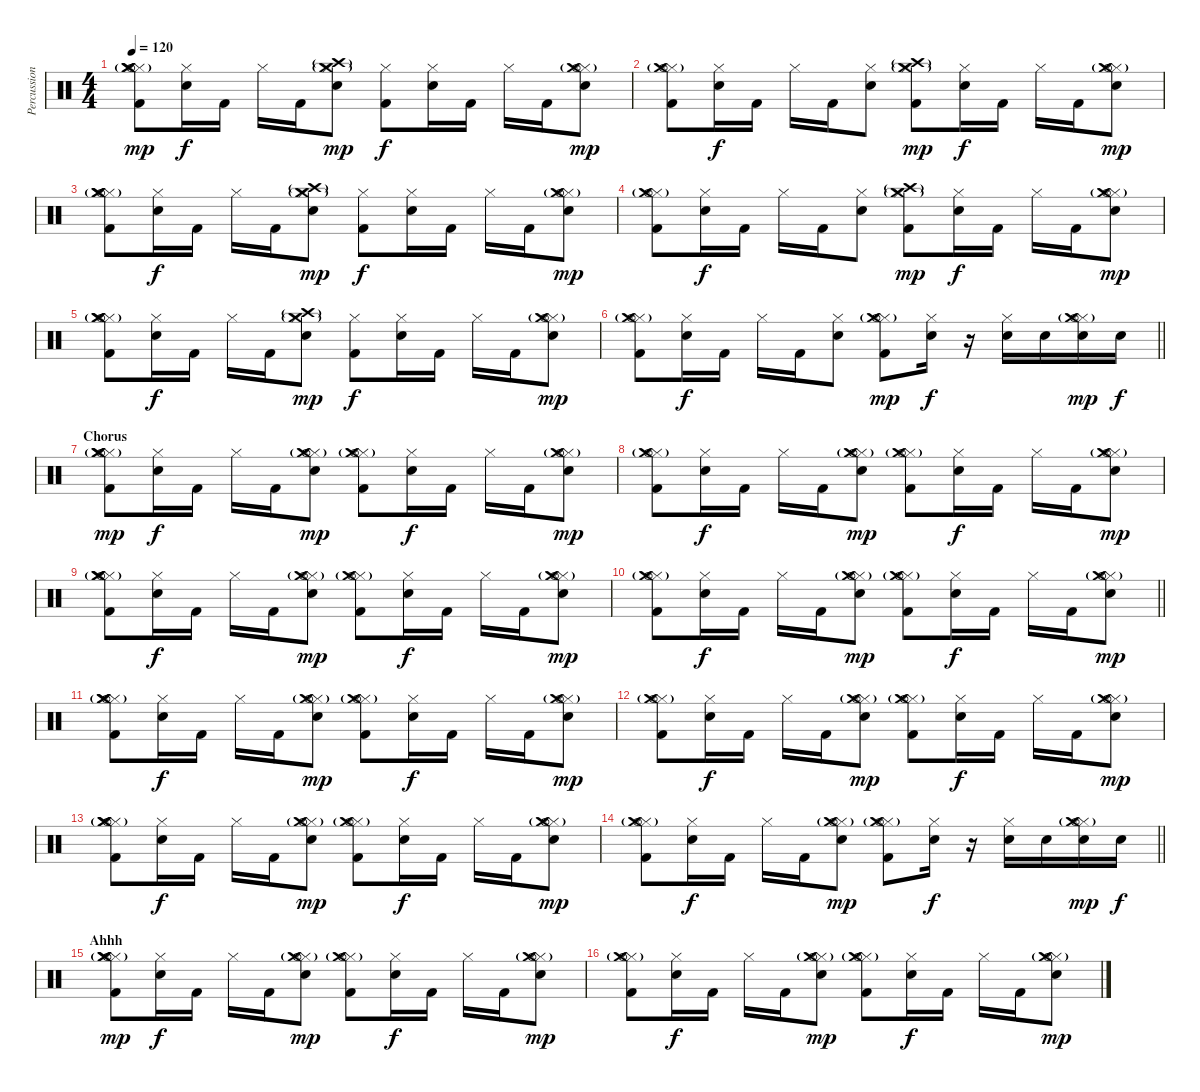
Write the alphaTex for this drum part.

\track ("Percussion" "Percussion") {instrument percussion}
\staff {score}
\articulation defaults
\ts (4 4)
\tempo 120
\clef neutral
\ks c
("Hi-Hat (closed)" "Hi-Hat (open)"{g} "Crash medium (hit)"{g} "Kick (hit) 2" "Crash medium (hit)").8{dy mp} ("Hi-Hat (closed)" "Snare (hit) 2").16{dy f} "Kick (hit) 2".16 "Hi-Hat (closed)".16 "Kick (hit) 2".16 ("Hi-Hat (closed)" "Crash high (hit)"{g} "Crash medium (hit)"{g} "Snare (hit) 2").8{dy mp} ("Hi-Hat (closed)" "Kick (hit) 2").8{dy f} ("Hi-Hat (closed)" "Snare (hit) 2").16 "Kick (hit) 2".16 "Hi-Hat (closed)".16 "Kick (hit) 2".16 ("Hi-Hat (closed)" "Hi-Hat (open)"{g} "Crash medium (hit)"{g} "Snare (hit) 2").8{dy mp} |
("Hi-Hat (closed)" "Hi-Hat (open)"{g} "Crash medium (hit)"{g} "Kick (hit) 2").8 ("Hi-Hat (closed)" "Snare (hit) 2").16{dy f} "Kick (hit) 2".16 "Hi-Hat (closed)".16 "Kick (hit) 2".16 ("Hi-Hat (closed)" "Snare (hit) 2").8 ("Hi-Hat (closed)" "Crash high (hit)"{g} "Crash medium (hit)"{g} "Kick (hit) 2").8{dy mp} ("Hi-Hat (closed)" "Snare (hit) 2").16{dy f} "Kick (hit) 2".16 "Hi-Hat (closed)".16 "Kick (hit) 2".16 ("Hi-Hat (closed)" "Hi-Hat (open)"{g} "Crash medium (hit)"{g} "Snare (hit) 2").8{dy mp} |
("Hi-Hat (closed)" "Hi-Hat (open)"{g} "Crash medium (hit)"{g} "Kick (hit) 2" "Crash medium (hit)").8 ("Hi-Hat (closed)" "Snare (hit) 2").16{dy f} "Kick (hit) 2".16 "Hi-Hat (closed)".16 "Kick (hit) 2".16 ("Hi-Hat (closed)" "Crash high (hit)"{g} "Crash medium (hit)"{g} "Snare (hit) 2").8{dy mp} ("Hi-Hat (closed)" "Kick (hit) 2").8{dy f} ("Hi-Hat (closed)" "Snare (hit) 2").16 "Kick (hit) 2".16 "Hi-Hat (closed)".16 "Kick (hit) 2".16 ("Hi-Hat (closed)" "Hi-Hat (open)"{g} "Crash medium (hit)"{g} "Snare (hit) 2").8{dy mp} |
("Hi-Hat (closed)" "Hi-Hat (open)"{g} "Crash medium (hit)"{g} "Kick (hit) 2").8 ("Hi-Hat (closed)" "Snare (hit) 2").16{dy f} "Kick (hit) 2".16 "Hi-Hat (closed)".16 "Kick (hit) 2".16 ("Hi-Hat (closed)" "Snare (hit) 2").8 ("Hi-Hat (closed)" "Crash high (hit)"{g} "Crash medium (hit)"{g} "Kick (hit) 2").8{dy mp} ("Hi-Hat (closed)" "Snare (hit) 2").16{dy f} "Kick (hit) 2".16 "Hi-Hat (closed)".16 "Kick (hit) 2".16 ("Hi-Hat (closed)" "Hi-Hat (open)"{g} "Crash medium (hit)"{g} "Snare (hit) 2").8{dy mp} |
("Hi-Hat (closed)" "Hi-Hat (open)"{g} "Crash medium (hit)"{g} "Kick (hit) 2" "Crash medium (hit)").8 ("Hi-Hat (closed)" "Snare (hit) 2").16{dy f} "Kick (hit) 2".16 "Hi-Hat (closed)".16 "Kick (hit) 2".16 ("Hi-Hat (closed)" "Crash high (hit)"{g} "Crash medium (hit)"{g} "Snare (hit) 2").8{dy mp} ("Hi-Hat (closed)" "Kick (hit) 2").8{dy f} ("Hi-Hat (closed)" "Snare (hit) 2").16 "Kick (hit) 2".16 "Hi-Hat (closed)".16 "Kick (hit) 2".16 ("Hi-Hat (closed)" "Hi-Hat (open)"{g} "Crash medium (hit)"{g} "Snare (hit) 2").8{dy mp} |
\barLineRight lightlight
("Hi-Hat (closed)" "Hi-Hat (open)"{g} "Crash medium (hit)"{g} "Kick (hit) 2").8 ("Hi-Hat (closed)" "Snare (hit) 2").16{dy f} "Kick (hit) 2".16 "Hi-Hat (closed)".16 "Kick (hit) 2".16 ("Hi-Hat (closed)" "Snare (hit) 2").8 ("Hi-Hat (closed)" "Hi-Hat (open)"{g} "Crash medium (hit)" "Kick (hit) 2").8{dy mp} ("Hi-Hat (closed)" "Snare (hit) 2").16{dy f} r.16 ("Hi-Hat (closed)" "Snare (hit) 2").16 "Snare (hit) 2".16 ("Hi-Hat (closed)" "Hi-Hat (open)"{g} "Crash medium (hit)"{g} "Snare (hit) 2").16{dy mp} "Snare (hit) 2".16{dy f} |
\section ("" "Chorus")
("Hi-Hat (closed)" "Hi-Hat (open)"{g} "Crash medium (hit)"{g} "Kick (hit) 2" "Crash medium (hit)").8{dy mp} ("Hi-Hat (closed)" "Snare (hit) 2").16{dy f} "Kick (hit) 2".16 "Hi-Hat (closed)".16 "Kick (hit) 2".16 ("Hi-Hat (closed)" "Hi-Hat (open)"{g} "Crash medium (hit)"{g} "Snare (hit) 2").8{dy mp} ("Hi-Hat (closed)" "Hi-Hat (open)"{g} "Crash medium (hit)"{g} "Kick (hit) 2").8 ("Hi-Hat (closed)" "Snare (hit) 2").16{dy f} "Kick (hit) 2".16 "Hi-Hat (closed)".16 "Kick (hit) 2".16 ("Hi-Hat (closed)" "Hi-Hat (open)"{g} "Crash medium (hit)"{g} "Snare (hit) 2").8{dy mp} |
("Hi-Hat (closed)" "Hi-Hat (open)"{g} "Crash medium (hit)"{g} "Kick (hit) 2").8 ("Hi-Hat (closed)" "Snare (hit) 2").16{dy f} "Kick (hit) 2".16 "Hi-Hat (closed)".16 "Kick (hit) 2".16 ("Hi-Hat (closed)" "Hi-Hat (open)"{g} "Crash medium (hit)"{g} "Snare (hit) 2").8{dy mp} ("Hi-Hat (closed)" "Hi-Hat (open)"{g} "Crash medium (hit)"{g} "Kick (hit) 2").8 ("Hi-Hat (closed)" "Snare (hit) 2").16{dy f} "Kick (hit) 2".16 "Hi-Hat (closed)".16 "Kick (hit) 2".16 ("Hi-Hat (closed)" "Hi-Hat (open)"{g} "Crash medium (hit)"{g} "Snare (hit) 2").8{dy mp} |
("Hi-Hat (closed)" "Hi-Hat (open)"{g} "Crash medium (hit)"{g} "Kick (hit) 2" "Crash medium (hit)").8 ("Hi-Hat (closed)" "Snare (hit) 2").16{dy f} "Kick (hit) 2".16 "Hi-Hat (closed)".16 "Kick (hit) 2".16 ("Hi-Hat (closed)" "Hi-Hat (open)"{g} "Crash medium (hit)"{g} "Snare (hit) 2").8{dy mp} ("Hi-Hat (closed)" "Hi-Hat (open)"{g} "Crash medium (hit)"{g} "Kick (hit) 2").8 ("Hi-Hat (closed)" "Snare (hit) 2").16{dy f} "Kick (hit) 2".16 "Hi-Hat (closed)".16 "Kick (hit) 2".16 ("Hi-Hat (closed)" "Hi-Hat (open)"{g} "Crash medium (hit)"{g} "Snare (hit) 2").8{dy mp} |
\barLineRight lightlight
("Hi-Hat (closed)" "Hi-Hat (open)"{g} "Crash medium (hit)"{g} "Kick (hit) 2").8 ("Hi-Hat (closed)" "Snare (hit) 2").16{dy f} "Kick (hit) 2".16 "Hi-Hat (closed)".16 "Kick (hit) 2".16 ("Hi-Hat (closed)" "Hi-Hat (open)"{g} "Crash medium (hit)"{g} "Snare (hit) 2").8{dy mp} ("Hi-Hat (closed)" "Hi-Hat (open)"{g} "Crash medium (hit)"{g} "Kick (hit) 2").8 ("Hi-Hat (closed)" "Snare (hit) 2").16{dy f} "Kick (hit) 2".16 "Hi-Hat (closed)".16 "Kick (hit) 2".16 ("Hi-Hat (closed)" "Hi-Hat (open)"{g} "Crash medium (hit)"{g} "Snare (hit) 2").8{dy mp} |
("Hi-Hat (closed)" "Hi-Hat (open)"{g} "Crash medium (hit)"{g} "Kick (hit) 2" "Crash medium (hit)").8 ("Hi-Hat (closed)" "Snare (hit) 2").16{dy f} "Kick (hit) 2".16 "Hi-Hat (closed)".16 "Kick (hit) 2".16 ("Hi-Hat (closed)" "Hi-Hat (open)"{g} "Crash medium (hit)"{g} "Snare (hit) 2").8{dy mp} ("Hi-Hat (closed)" "Hi-Hat (open)"{g} "Crash medium (hit)"{g} "Kick (hit) 2").8 ("Hi-Hat (closed)" "Snare (hit) 2").16{dy f} "Kick (hit) 2".16 "Hi-Hat (closed)".16 "Kick (hit) 2".16 ("Hi-Hat (closed)" "Hi-Hat (open)"{g} "Crash medium (hit)"{g} "Snare (hit) 2").8{dy mp} |
("Hi-Hat (closed)" "Hi-Hat (open)"{g} "Crash medium (hit)"{g} "Kick (hit) 2").8 ("Hi-Hat (closed)" "Snare (hit) 2").16{dy f} "Kick (hit) 2".16 "Hi-Hat (closed)".16 "Kick (hit) 2".16 ("Hi-Hat (closed)" "Hi-Hat (open)"{g} "Crash medium (hit)"{g} "Snare (hit) 2").8{dy mp} ("Hi-Hat (closed)" "Hi-Hat (open)"{g} "Crash medium (hit)"{g} "Kick (hit) 2").8 ("Hi-Hat (closed)" "Snare (hit) 2").16{dy f} "Kick (hit) 2".16 "Hi-Hat (closed)".16 "Kick (hit) 2".16 ("Hi-Hat (closed)" "Hi-Hat (open)"{g} "Crash medium (hit)"{g} "Snare (hit) 2").8{dy mp} |
("Hi-Hat (closed)" "Hi-Hat (open)"{g} "Crash medium (hit)"{g} "Kick (hit) 2" "Crash medium (hit)").8 ("Hi-Hat (closed)" "Snare (hit) 2").16{dy f} "Kick (hit) 2".16 "Hi-Hat (closed)".16 "Kick (hit) 2".16 ("Hi-Hat (closed)" "Hi-Hat (open)"{g} "Crash medium (hit)"{g} "Snare (hit) 2").8{dy mp} ("Hi-Hat (closed)" "Hi-Hat (open)"{g} "Crash medium (hit)"{g} "Kick (hit) 2").8 ("Hi-Hat (closed)" "Snare (hit) 2").16{dy f} "Kick (hit) 2".16 "Hi-Hat (closed)".16 "Kick (hit) 2".16 ("Hi-Hat (closed)" "Hi-Hat (open)"{g} "Crash medium (hit)"{g} "Snare (hit) 2").8{dy mp} |
\barLineRight lightlight
("Hi-Hat (closed)" "Hi-Hat (open)"{g} "Crash medium (hit)"{g} "Kick (hit) 2").8 ("Hi-Hat (closed)" "Snare (hit) 2").16{dy f} "Kick (hit) 2".16 "Hi-Hat (closed)".16 "Kick (hit) 2".16 ("Hi-Hat (closed)" "Hi-Hat (open)"{g} "Crash medium (hit)"{g} "Snare (hit) 2").8{dy mp} ("Hi-Hat (closed)" "Hi-Hat (open)"{g} "Crash medium (hit)" "Kick (hit) 2").8 ("Hi-Hat (closed)" "Snare (hit) 2").16{dy f} r.16 ("Hi-Hat (closed)" "Snare (hit) 2").16 "Snare (hit) 2".16 ("Hi-Hat (closed)" "Hi-Hat (open)"{g} "Crash medium (hit)"{g} "Snare (hit) 2").16{dy mp} "Snare (hit) 2".16{dy f} |
\section ("" "Ahhh")
("Hi-Hat (closed)" "Hi-Hat (open)"{g} "Crash medium (hit)"{g} "Kick (hit) 2" "Crash medium (hit)").8{dy mp} ("Hi-Hat (closed)" "Snare (hit) 2").16{dy f} "Kick (hit) 2".16 "Hi-Hat (closed)".16 "Kick (hit) 2".16 ("Hi-Hat (closed)" "Hi-Hat (open)"{g} "Crash medium (hit)"{g} "Snare (hit) 2").8{dy mp} ("Hi-Hat (closed)" "Hi-Hat (open)"{g} "Crash medium (hit)"{g} "Kick (hit) 2").8 ("Hi-Hat (closed)" "Snare (hit) 2").16{dy f} "Kick (hit) 2".16 "Hi-Hat (closed)".16 "Kick (hit) 2".16 ("Hi-Hat (closed)" "Hi-Hat (open)"{g} "Crash medium (hit)"{g} "Snare (hit) 2").8{dy mp} |
("Hi-Hat (closed)" "Hi-Hat (open)"{g} "Crash medium (hit)"{g} "Kick (hit) 2").8 ("Hi-Hat (closed)" "Snare (hit) 2").16{dy f} "Kick (hit) 2".16 "Hi-Hat (closed)".16 "Kick (hit) 2".16 ("Hi-Hat (closed)" "Hi-Hat (open)"{g} "Crash medium (hit)"{g} "Snare (hit) 2").8{dy mp} ("Hi-Hat (closed)" "Hi-Hat (open)"{g} "Crash medium (hit)"{g} "Kick (hit) 2").8 ("Hi-Hat (closed)" "Snare (hit) 2").16{dy f} "Kick (hit) 2".16 "Hi-Hat (closed)".16 "Kick (hit) 2".16 ("Hi-Hat (closed)" "Hi-Hat (open)"{g} "Crash medium (hit)"{g} "Snare (hit) 2").8{dy mp}
